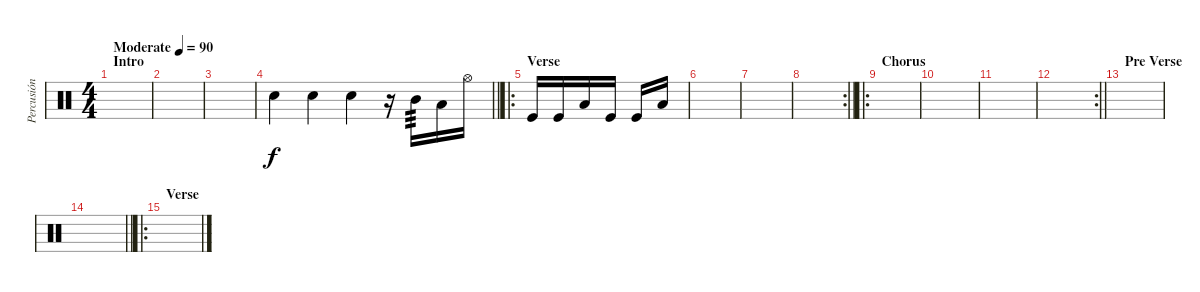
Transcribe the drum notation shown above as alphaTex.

\track ("Percusión" "Percusión") {instrument percussion}
\staff {score}
\articulation defaults
\ts (4 4)
\section ("" "Intro")
\tempo (90 "Moderate")
\clef neutral
\ks c
|
|
|
\barLineRight lightlight "Snare (hit)".4 "Snare (hit)".4 "Snare (hit)".4
r.16 "Mid Tom (hit)".16{tp 3} "Low Tom (hit)".16 "Hi-Hat (open)".16 |
\ro
\section ("" "Verse")
"Kick (hit)".16 "Kick (hit)".16 "Low Tom (hit)".16 "Kick (hit)".16 "Kick (hit)".16 "Low Tom (hit)".16 |
|
|
\rc 2
\barLineRight lightlight
|
\ro
\section ("" "Chorus")
|
|
|
\rc 2
\barLineRight lightlight
|
\section ("" "Pre Verse")
|
\barLineRight lightlight
|
\ro
\section ("" "Verse")
